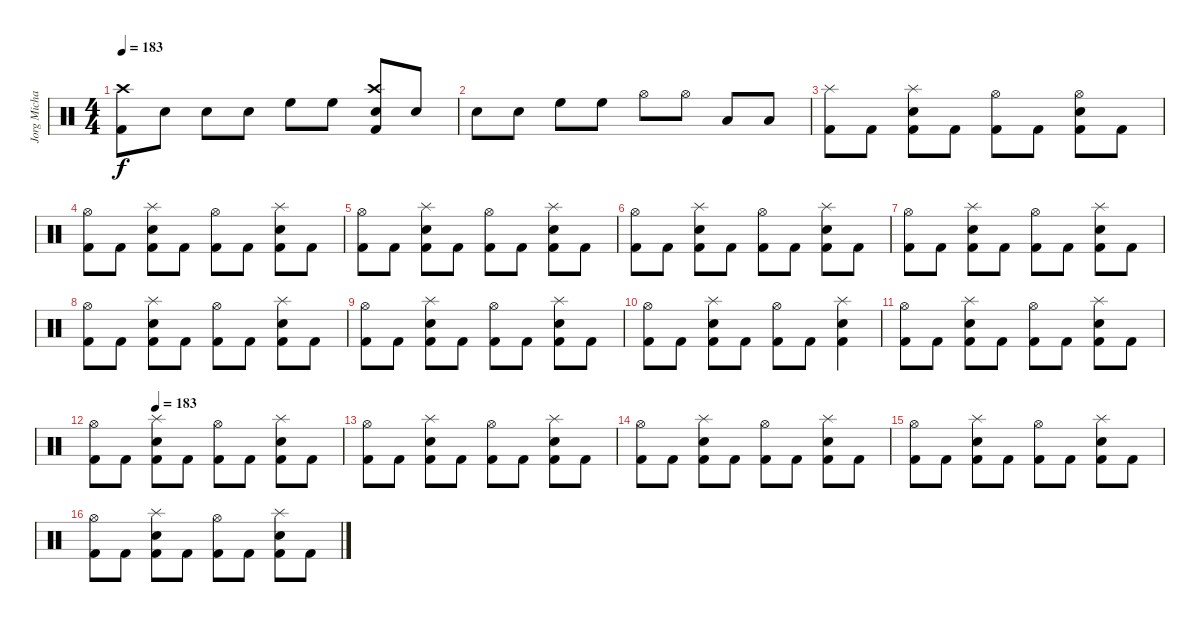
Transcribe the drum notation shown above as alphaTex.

\track ("Jorg Michael" "Jorg Micha") {instrument percussion}
\staff {score}
\articulation defaults
\ts (4 4)
\tempo 183
\clef neutral
\ks c
("Kick (hit) 2" "Crash high (hit)").8{dy f} "Snare (hit) 2".8 "Snare (hit) 2".8 "Snare (hit) 2".8 "High Floor Tom (hit)".8 "High Floor Tom (hit)".8 ("Kick (hit) 2" "Snare (hit) 2" "Crash high (hit)").8 "Snare (hit) 2".8 |
"Snare (hit) 2".8 "Snare (hit) 2".8 "High Floor Tom (hit)".8 "High Floor Tom (hit)".8 "Hi-Hat (open)".8 "Hi-Hat (open)".8 "Low Tom (hit)".8 "Low Tom (hit)".8 |
("Kick (hit) 2" "Splash (hit)").8 "Kick (hit) 2".8 ("Snare (hit) 2" "Kick (hit) 2" "Splash (hit)").8 "Kick (hit) 2".8 ("Kick (hit) 2" "Hi-Hat (open)").8 "Kick (hit) 2".8 ("Snare (hit) 2" "Kick (hit) 2" "Hi-Hat (open)").8 "Kick (hit) 2".8 |
("Hi-Hat (open)" "Kick (hit) 2").8 "Kick (hit) 2".8 ("Snare (hit) 2" "Kick (hit) 2" "Splash (hit)").8 "Kick (hit) 2".8 ("Kick (hit) 2" "Hi-Hat (open)").8 "Kick (hit) 2".8 ("Snare (hit) 2" "Kick (hit) 2" "Splash (hit)").8 "Kick (hit) 2".8 |
("Kick (hit) 2" "Hi-Hat (open)").8 "Kick (hit) 2".8 ("Snare (hit) 2" "Kick (hit) 2" "Splash (hit)").8 "Kick (hit) 2".8 ("Kick (hit) 2" "Hi-Hat (open)").8 "Kick (hit) 2".8 ("Snare (hit) 2" "Kick (hit) 2" "Splash (hit)").8 "Kick (hit) 2".8 |
("Kick (hit) 2" "Hi-Hat (open)").8 "Kick (hit) 2".8 ("Snare (hit) 2" "Kick (hit) 2" "Splash (hit)").8 "Kick (hit) 2".8 ("Kick (hit) 2" "Hi-Hat (open)").8 "Kick (hit) 2".8 ("Snare (hit) 2" "Kick (hit) 2" "Splash (hit)").8 "Kick (hit) 2".8 |
("Kick (hit) 2" "Hi-Hat (open)").8 "Kick (hit) 2".8 ("Snare (hit) 2" "Kick (hit) 2" "Splash (hit)").8 "Kick (hit) 2".8 ("Kick (hit) 2" "Hi-Hat (open)").8 "Kick (hit) 2".8 ("Snare (hit) 2" "Kick (hit) 2" "Splash (hit)").8 "Kick (hit) 2".8 |
("Kick (hit) 2" "Hi-Hat (open)").8 "Kick (hit) 2".8 ("Snare (hit) 2" "Kick (hit) 2" "Splash (hit)").8 "Kick (hit) 2".8 ("Kick (hit) 2" "Hi-Hat (open)").8 "Kick (hit) 2".8 ("Snare (hit) 2" "Kick (hit) 2" "Splash (hit)").8 "Kick (hit) 2".8 |
("Kick (hit) 2" "Hi-Hat (open)").8 "Kick (hit) 2".8 ("Snare (hit) 2" "Kick (hit) 2" "Splash (hit)").8 "Kick (hit) 2".8 ("Kick (hit) 2" "Hi-Hat (open)").8 "Kick (hit) 2".8 ("Snare (hit) 2" "Kick (hit) 2" "Splash (hit)").8 "Kick (hit) 2".8 |
("Kick (hit) 2" "Hi-Hat (open)").8 "Kick (hit) 2".8 ("Kick (hit) 2" "Snare (hit) 2" "Splash (hit)").8 "Kick (hit) 2".8 ("Kick (hit) 2" "Hi-Hat (open)").8 "Kick (hit) 2".8 ("Kick (hit) 2" "Snare (hit) 2" "Splash (hit)").4 |
("Kick (hit) 2" "Hi-Hat (open)").8 "Kick (hit) 2".8 ("Snare (hit) 2" "Kick (hit) 2" "Splash (hit)").8 "Kick (hit) 2".8 ("Kick (hit) 2" "Hi-Hat (open)").8 "Kick (hit) 2".8 ("Snare (hit) 2" "Kick (hit) 2" "Splash (hit)").8 "Kick (hit) 2".8 |
\tempo (183 0.25)
("Hi-Hat (open)" "Kick (hit) 2").8 "Kick (hit) 2".8 ("Snare (hit) 2" "Kick (hit) 2" "Splash (hit)").8 "Kick (hit) 2".8 ("Kick (hit) 2" "Hi-Hat (open)").8 "Kick (hit) 2".8 ("Snare (hit) 2" "Kick (hit) 2" "Splash (hit)").8 "Kick (hit) 2".8 |
("Kick (hit) 2" "Hi-Hat (open)").8 "Kick (hit) 2".8 ("Snare (hit) 2" "Kick (hit) 2" "Splash (hit)").8 "Kick (hit) 2".8 ("Kick (hit) 2" "Hi-Hat (open)").8 "Kick (hit) 2".8 ("Snare (hit) 2" "Kick (hit) 2" "Splash (hit)").8 "Kick (hit) 2".8 |
("Hi-Hat (open)" "Kick (hit) 2").8 "Kick (hit) 2".8 ("Snare (hit) 2" "Kick (hit) 2" "Splash (hit)").8 "Kick (hit) 2".8 ("Kick (hit) 2" "Hi-Hat (open)").8 "Kick (hit) 2".8 ("Snare (hit) 2" "Kick (hit) 2" "Splash (hit)").8 "Kick (hit) 2".8 |
("Kick (hit) 2" "Hi-Hat (open)").8 "Kick (hit) 2".8 ("Snare (hit) 2" "Kick (hit) 2" "Splash (hit)").8 "Kick (hit) 2".8 ("Kick (hit) 2" "Hi-Hat (open)").8 "Kick (hit) 2".8 ("Snare (hit) 2" "Kick (hit) 2" "Splash (hit)").8 "Kick (hit) 2".8 |
("Hi-Hat (open)" "Kick (hit) 2").8 "Kick (hit) 2".8 ("Snare (hit) 2" "Kick (hit) 2" "Splash (hit)").8 "Kick (hit) 2".8 ("Kick (hit) 2" "Hi-Hat (open)").8 "Kick (hit) 2".8 ("Snare (hit) 2" "Kick (hit) 2" "Splash (hit)").8 "Kick (hit) 2".8
